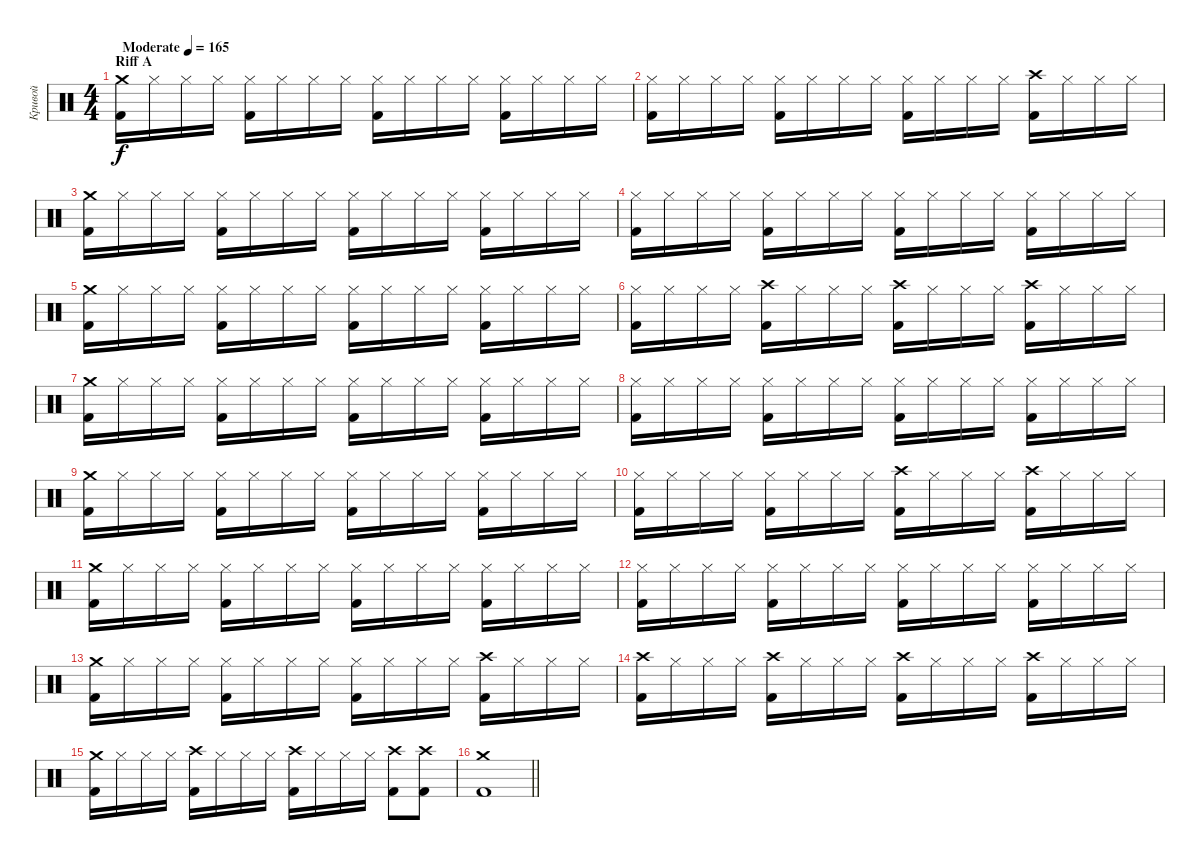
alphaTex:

\track ("Кривой" "Кривой") {instrument percussion}
\staff {score}
\articulation defaults
\ts (4 4)
\section ("" "Riff A")
\tempo (165 "Moderate")
\clef neutral
\ks c
("Crash medium (hit)" "Kick (hit) 2").16{dy f} "Hi-Hat (closed)".16 "Hi-Hat (closed)".16 "Hi-Hat (closed)".16 ("Hi-Hat (closed)" "Kick (hit) 2").16 "Hi-Hat (closed)".16 "Hi-Hat (closed)".16 "Hi-Hat (closed)".16 ("Hi-Hat (closed)" "Kick (hit) 2").16 "Hi-Hat (closed)".16 "Hi-Hat (closed)".16 "Hi-Hat (closed)".16 ("Hi-Hat (closed)" "Kick (hit) 2").16 "Hi-Hat (closed)".16 "Hi-Hat (closed)".16 "Hi-Hat (closed)".16 |
("Hi-Hat (closed)" "Kick (hit) 2").16 "Hi-Hat (closed)".16 "Hi-Hat (closed)".16 "Hi-Hat (closed)".16 ("Hi-Hat (closed)" "Kick (hit) 2").16 "Hi-Hat (closed)".16 "Hi-Hat (closed)".16 "Hi-Hat (closed)".16 ("Hi-Hat (closed)" "Kick (hit) 2").16 "Hi-Hat (closed)".16 "Hi-Hat (closed)".16 "Hi-Hat (closed)".16 ("Crash high (hit)" "Kick (hit) 2").16 "Hi-Hat (closed)".16 "Hi-Hat (closed)".16 "Hi-Hat (closed)".16 |
("Crash medium (hit)" "Kick (hit) 2").16 "Hi-Hat (closed)".16 "Hi-Hat (closed)".16 "Hi-Hat (closed)".16 ("Hi-Hat (closed)" "Kick (hit) 2").16 "Hi-Hat (closed)".16 "Hi-Hat (closed)".16 "Hi-Hat (closed)".16 ("Hi-Hat (closed)" "Kick (hit) 2").16 "Hi-Hat (closed)".16 "Hi-Hat (closed)".16 "Hi-Hat (closed)".16 ("Hi-Hat (closed)" "Kick (hit) 2").16 "Hi-Hat (closed)".16 "Hi-Hat (closed)".16 "Hi-Hat (closed)".16 |
("Hi-Hat (closed)" "Kick (hit) 2").16 "Hi-Hat (closed)".16 "Hi-Hat (closed)".16 "Hi-Hat (closed)".16 ("Hi-Hat (closed)" "Kick (hit) 2").16 "Hi-Hat (closed)".16 "Hi-Hat (closed)".16 "Hi-Hat (closed)".16 ("Hi-Hat (closed)" "Kick (hit) 2").16 "Hi-Hat (closed)".16 "Hi-Hat (closed)".16 "Hi-Hat (closed)".16 ("Hi-Hat (closed)" "Kick (hit) 2").16 "Hi-Hat (closed)".16 "Hi-Hat (closed)".16 "Hi-Hat (closed)".16 |
("Crash medium (hit)" "Kick (hit) 2").16 "Hi-Hat (closed)".16 "Hi-Hat (closed)".16 "Hi-Hat (closed)".16 ("Hi-Hat (closed)" "Kick (hit) 2").16 "Hi-Hat (closed)".16 "Hi-Hat (closed)".16 "Hi-Hat (closed)".16 ("Hi-Hat (closed)" "Kick (hit) 2").16 "Hi-Hat (closed)".16 "Hi-Hat (closed)".16 "Hi-Hat (closed)".16 ("Hi-Hat (closed)" "Kick (hit) 2").16 "Hi-Hat (closed)".16 "Hi-Hat (closed)".16 "Hi-Hat (closed)".16 |
("Hi-Hat (closed)" "Kick (hit) 2").16 "Hi-Hat (closed)".16 "Hi-Hat (closed)".16 "Hi-Hat (closed)".16 ("Crash high (hit)" "Kick (hit) 2").16 "Hi-Hat (closed)".16 "Hi-Hat (closed)".16 "Hi-Hat (closed)".16 ("Crash high (hit)" "Kick (hit) 2").16 "Hi-Hat (closed)".16 "Hi-Hat (closed)".16 "Hi-Hat (closed)".16 ("Crash high (hit)" "Kick (hit) 2").16 "Hi-Hat (closed)".16 "Hi-Hat (closed)".16 "Hi-Hat (closed)".16 |
("Crash medium (hit)" "Kick (hit) 2").16 "Hi-Hat (closed)".16 "Hi-Hat (closed)".16 "Hi-Hat (closed)".16 ("Hi-Hat (closed)" "Kick (hit) 2").16 "Hi-Hat (closed)".16 "Hi-Hat (closed)".16 "Hi-Hat (closed)".16 ("Hi-Hat (closed)" "Kick (hit) 2").16 "Hi-Hat (closed)".16 "Hi-Hat (closed)".16 "Hi-Hat (closed)".16 ("Hi-Hat (closed)" "Kick (hit) 2").16 "Hi-Hat (closed)".16 "Hi-Hat (closed)".16 "Hi-Hat (closed)".16 |
("Hi-Hat (closed)" "Kick (hit) 2").16 "Hi-Hat (closed)".16 "Hi-Hat (closed)".16 "Hi-Hat (closed)".16 ("Hi-Hat (closed)" "Kick (hit) 2").16 "Hi-Hat (closed)".16 "Hi-Hat (closed)".16 "Hi-Hat (closed)".16 ("Hi-Hat (closed)" "Kick (hit) 2").16 "Hi-Hat (closed)".16 "Hi-Hat (closed)".16 "Hi-Hat (closed)".16 ("Hi-Hat (closed)" "Kick (hit) 2").16 "Hi-Hat (closed)".16 "Hi-Hat (closed)".16 "Hi-Hat (closed)".16 |
("Crash medium (hit)" "Kick (hit) 2").16 "Hi-Hat (closed)".16 "Hi-Hat (closed)".16 "Hi-Hat (closed)".16 ("Hi-Hat (closed)" "Kick (hit) 2").16 "Hi-Hat (closed)".16 "Hi-Hat (closed)".16 "Hi-Hat (closed)".16 ("Hi-Hat (closed)" "Kick (hit) 2").16 "Hi-Hat (closed)".16 "Hi-Hat (closed)".16 "Hi-Hat (closed)".16 ("Hi-Hat (closed)" "Kick (hit) 2").16 "Hi-Hat (closed)".16 "Hi-Hat (closed)".16 "Hi-Hat (closed)".16 |
("Hi-Hat (closed)" "Kick (hit) 2").16 "Hi-Hat (closed)".16 "Hi-Hat (closed)".16 "Hi-Hat (closed)".16 ("Hi-Hat (closed)" "Kick (hit) 2").16 "Hi-Hat (closed)".16 "Hi-Hat (closed)".16 "Hi-Hat (closed)".16 ("Crash high (hit)" "Kick (hit) 2").16 "Hi-Hat (closed)".16 "Hi-Hat (closed)".16 "Hi-Hat (closed)".16 ("Crash high (hit)" "Kick (hit) 2").16 "Hi-Hat (closed)".16 "Hi-Hat (closed)".16 "Hi-Hat (closed)".16 |
("Crash medium (hit)" "Kick (hit) 2").16 "Hi-Hat (closed)".16 "Hi-Hat (closed)".16 "Hi-Hat (closed)".16 ("Hi-Hat (closed)" "Kick (hit) 2").16 "Hi-Hat (closed)".16 "Hi-Hat (closed)".16 "Hi-Hat (closed)".16 ("Hi-Hat (closed)" "Kick (hit) 2").16 "Hi-Hat (closed)".16 "Hi-Hat (closed)".16 "Hi-Hat (closed)".16 ("Hi-Hat (closed)" "Kick (hit) 2").16 "Hi-Hat (closed)".16 "Hi-Hat (closed)".16 "Hi-Hat (closed)".16 |
("Hi-Hat (closed)" "Kick (hit) 2").16 "Hi-Hat (closed)".16 "Hi-Hat (closed)".16 "Hi-Hat (closed)".16 ("Hi-Hat (closed)" "Kick (hit) 2").16 "Hi-Hat (closed)".16 "Hi-Hat (closed)".16 "Hi-Hat (closed)".16 ("Hi-Hat (closed)" "Kick (hit) 2").16 "Hi-Hat (closed)".16 "Hi-Hat (closed)".16 "Hi-Hat (closed)".16 ("Hi-Hat (closed)" "Kick (hit) 2").16 "Hi-Hat (closed)".16 "Hi-Hat (closed)".16 "Hi-Hat (closed)".16 |
("Crash medium (hit)" "Kick (hit) 2").16 "Hi-Hat (closed)".16 "Hi-Hat (closed)".16 "Hi-Hat (closed)".16 ("Hi-Hat (closed)" "Kick (hit) 2").16 "Hi-Hat (closed)".16 "Hi-Hat (closed)".16 "Hi-Hat (closed)".16 ("Hi-Hat (closed)" "Kick (hit) 2").16 "Hi-Hat (closed)".16 "Hi-Hat (closed)".16 "Hi-Hat (closed)".16 ("Crash high (hit)" "Kick (hit) 2").16 "Hi-Hat (closed)".16 "Hi-Hat (closed)".16 "Hi-Hat (closed)".16 |
("Crash high (hit)" "Kick (hit) 2").16 "Hi-Hat (closed)".16 "Hi-Hat (closed)".16 "Hi-Hat (closed)".16 ("Crash high (hit)" "Kick (hit) 2").16 "Hi-Hat (closed)".16 "Hi-Hat (closed)".16 "Hi-Hat (closed)".16 ("Crash high (hit)" "Kick (hit) 2").16 "Hi-Hat (closed)".16 "Hi-Hat (closed)".16 "Hi-Hat (closed)".16 ("Crash high (hit)" "Kick (hit) 2").16 "Hi-Hat (closed)".16 "Hi-Hat (closed)".16 "Hi-Hat (closed)".16 |
("Crash medium (hit)" "Kick (hit) 2").16 "Hi-Hat (closed)".16 "Hi-Hat (closed)".16 "Hi-Hat (closed)".16 ("Crash high (hit)" "Kick (hit) 2").16 "Hi-Hat (closed)".16 "Hi-Hat (closed)".16 "Hi-Hat (closed)".16 ("Crash high (hit)" "Kick (hit) 2").16 "Hi-Hat (closed)".16 "Hi-Hat (closed)".16 "Hi-Hat (closed)".16 ("Crash high (hit)" "Kick (hit) 2").8 ("Crash high (hit)" "Kick (hit) 2").8 |
\barLineRight lightlight
("Crash medium (hit)" "Kick (hit) 2").1
